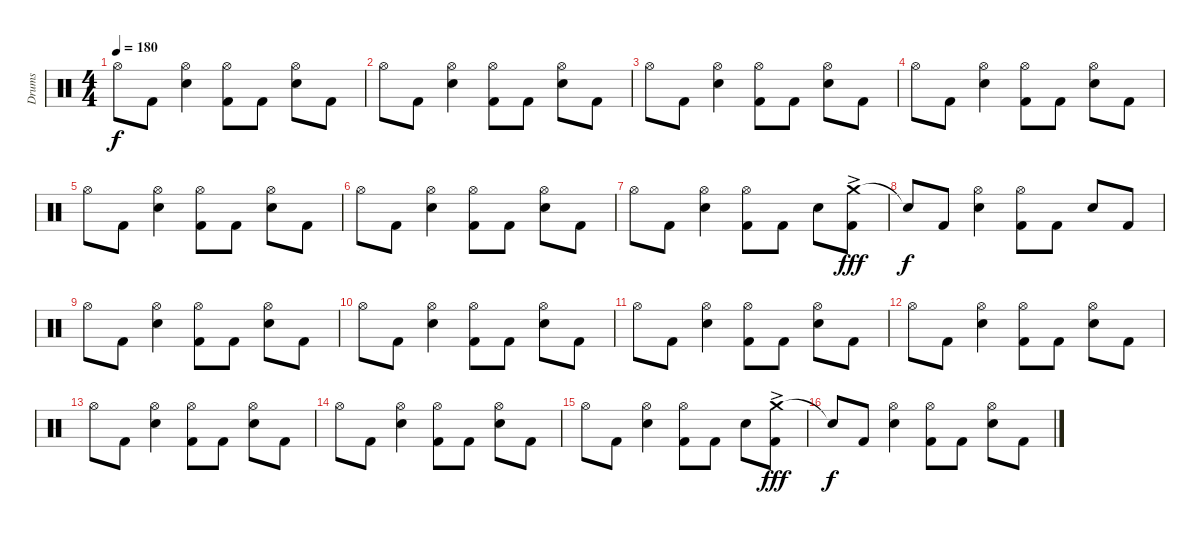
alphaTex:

\track ("Drums" "Drums") {instrument percussion}
\staff {score}
\articulation defaults
\ts (4 4)
\tempo 180
\clef neutral
\ks c "Hi-Hat (open)".8{dy f} "Kick (hit) 2".8
("Hi-Hat (open)" "Snare (hit) 2").4 ("Hi-Hat (open)" "Kick (hit) 2").8 "Kick (hit) 2".8 ("Hi-Hat (open)" "Snare (hit) 2").8 "Kick (hit) 2".8 |
"Hi-Hat (open)".8 "Kick (hit) 2".8 ("Hi-Hat (open)" "Snare (hit) 2").4 ("Hi-Hat (open)" "Kick (hit) 2").8 "Kick (hit) 2".8 ("Hi-Hat (open)" "Snare (hit) 2").8 "Kick (hit) 2".8 |
"Hi-Hat (open)".8 "Kick (hit) 2".8 ("Hi-Hat (open)" "Snare (hit) 2").4 ("Hi-Hat (open)" "Kick (hit) 2").8 "Kick (hit) 2".8 ("Hi-Hat (open)" "Snare (hit) 2").8 "Kick (hit) 2".8 |
"Hi-Hat (open)".8 "Kick (hit) 2".8 ("Hi-Hat (open)" "Snare (hit) 2").4 ("Hi-Hat (open)" "Kick (hit) 2").8 "Kick (hit) 2".8 ("Hi-Hat (open)" "Snare (hit) 2").8 "Kick (hit) 2".8 |
"Hi-Hat (open)".8 "Kick (hit) 2".8 ("Hi-Hat (open)" "Snare (hit) 2").4 ("Hi-Hat (open)" "Kick (hit) 2").8 "Kick (hit) 2".8 ("Hi-Hat (open)" "Snare (hit) 2").8 "Kick (hit) 2".8 |
"Hi-Hat (open)".8 "Kick (hit) 2".8 ("Hi-Hat (open)" "Snare (hit) 2").4 ("Hi-Hat (open)" "Kick (hit) 2").8 "Kick (hit) 2".8 ("Hi-Hat (open)" "Snare (hit) 2").8 "Kick (hit) 2".8 |
"Hi-Hat (open)".8 "Kick (hit) 2".8 ("Hi-Hat (open)" "Snare (hit) 2").4 ("Hi-Hat (open)" "Kick (hit) 2").8 "Kick (hit) 2".8 "Snare (hit) 2".8 ("Crash medium (hit)"{ac} "Kick (hit) 2").8{dy fff} |
"Snare (hit)"{t}.8{dy f} "Kick (hit) 2".8 ("Hi-Hat (open)" "Snare (hit) 2").4 ("Hi-Hat (open)" "Kick (hit) 2").8 "Kick (hit) 2".8 "Snare (hit) 2".8 "Kick (hit) 2".8 |
"Hi-Hat (open)".8 "Kick (hit) 2".8 ("Hi-Hat (open)" "Snare (hit) 2").4 ("Hi-Hat (open)" "Kick (hit) 2").8 "Kick (hit) 2".8 ("Hi-Hat (open)" "Snare (hit) 2").8 "Kick (hit) 2".8 |
"Hi-Hat (open)".8 "Kick (hit) 2".8 ("Hi-Hat (open)" "Snare (hit) 2").4 ("Hi-Hat (open)" "Kick (hit) 2").8 "Kick (hit) 2".8 ("Hi-Hat (open)" "Snare (hit) 2").8 "Kick (hit) 2".8 |
"Hi-Hat (open)".8 "Kick (hit) 2".8 ("Hi-Hat (open)" "Snare (hit) 2").4 ("Hi-Hat (open)" "Kick (hit) 2").8 "Kick (hit) 2".8 ("Hi-Hat (open)" "Snare (hit) 2").8 "Kick (hit) 2".8 |
"Hi-Hat (open)".8 "Kick (hit) 2".8 ("Hi-Hat (open)" "Snare (hit) 2").4 ("Hi-Hat (open)" "Kick (hit) 2").8 "Kick (hit) 2".8 ("Hi-Hat (open)" "Snare (hit) 2").8 "Kick (hit) 2".8 |
"Hi-Hat (open)".8 "Kick (hit) 2".8 ("Hi-Hat (open)" "Snare (hit) 2").4 ("Hi-Hat (open)" "Kick (hit) 2").8 "Kick (hit) 2".8 ("Hi-Hat (open)" "Snare (hit) 2").8 "Kick (hit) 2".8 |
"Hi-Hat (open)".8 "Kick (hit) 2".8 ("Hi-Hat (open)" "Snare (hit) 2").4 ("Hi-Hat (open)" "Kick (hit) 2").8 "Kick (hit) 2".8 ("Hi-Hat (open)" "Snare (hit) 2").8 "Kick (hit) 2".8 |
"Hi-Hat (open)".8 "Kick (hit) 2".8 ("Hi-Hat (open)" "Snare (hit) 2").4 ("Hi-Hat (open)" "Kick (hit) 2").8 "Kick (hit) 2".8 "Snare (hit) 2".8 ("Crash medium (hit)"{ac} "Kick (hit) 2").8{dy fff} |
"Snare (hit)"{t}.8{dy f} "Kick (hit) 2".8 ("Hi-Hat (open)" "Snare (hit) 2").4 ("Hi-Hat (open)" "Kick (hit) 2").8 "Kick (hit) 2".8 ("Hi-Hat (open)" "Snare (hit) 2").8 "Kick (hit) 2".8
